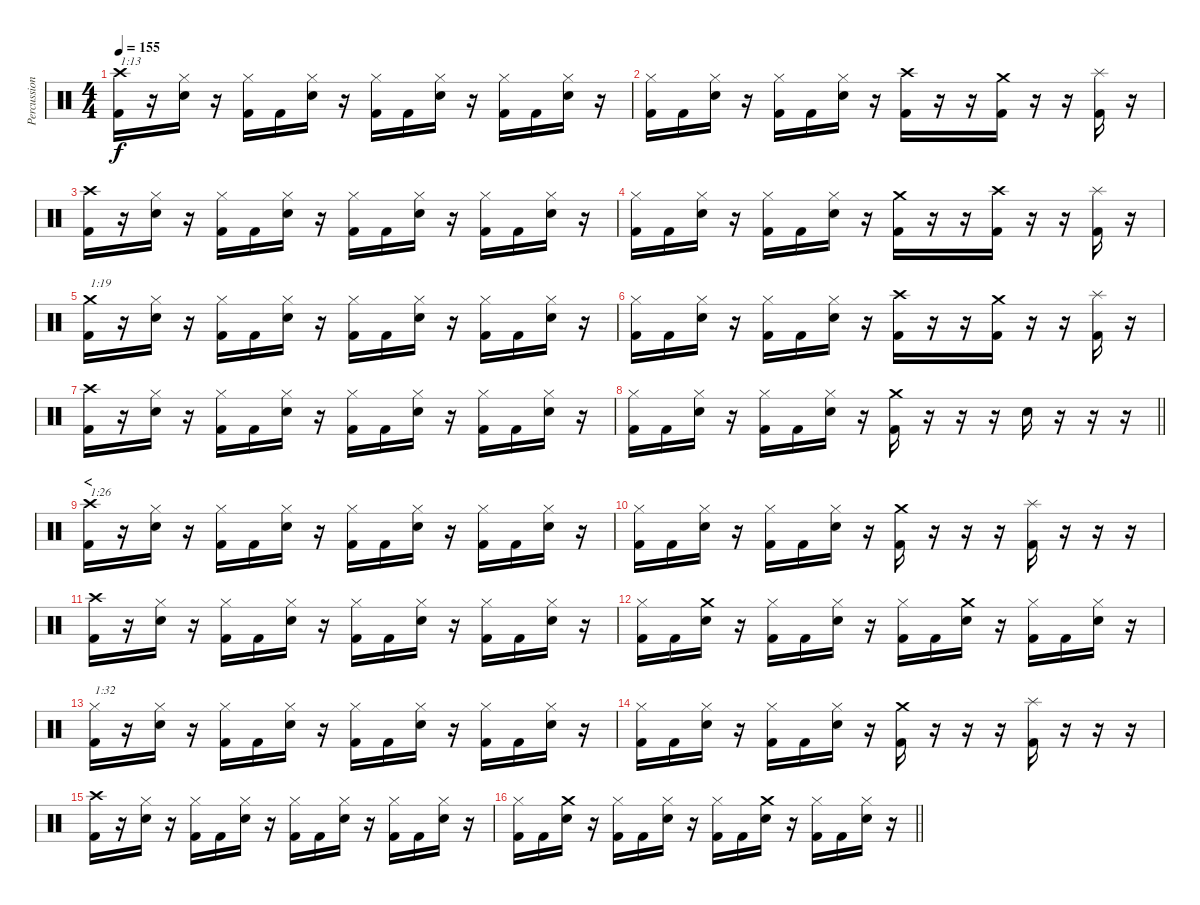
\track ("Percussion" "Percussion") {instrument percussion}
\staff {score}
\articulation defaults
\ts (4 4)
\tempo 155
\clef neutral
\ks c
("Crash high (hit)" "Kick (hit) 2").16{txt "1:13" dy f} r.16 ("Hi-Hat (closed)" "Electric Snare (hit)").16 r.16 ("Hi-Hat (closed)" "Kick (hit) 2").16 "Kick (hit) 2".16 ("Hi-Hat (closed)" "Electric Snare (hit)").16 r.16 ("Hi-Hat (closed)" "Kick (hit) 2").16 "Kick (hit) 2".16 ("Hi-Hat (closed)" "Electric Snare (hit)").16 r.16 ("Hi-Hat (closed)" "Kick (hit) 2").16 "Kick (hit) 2".16 ("Hi-Hat (closed)" "Electric Snare (hit)").16 r.16 |
("Hi-Hat (closed)" "Kick (hit) 2").16 "Kick (hit) 2".16 ("Hi-Hat (closed)" "Electric Snare (hit)").16 r.16 ("Hi-Hat (closed)" "Kick (hit) 2").16 "Kick (hit) 2".16 ("Hi-Hat (closed)" "Electric Snare (hit)").16 r.16 ("Crash high (hit)" "Kick (hit) 2").16 r.16 r.16 ("Crash medium (hit)" "Kick (hit) 2").16 r.16 r.16 ("Splash (hit)" "Kick (hit) 2").16 r.16 |
("Crash high (hit)" "Kick (hit) 2").16 r.16 ("Hi-Hat (closed)" "Electric Snare (hit)").16 r.16 ("Hi-Hat (closed)" "Kick (hit) 2").16 "Kick (hit) 2".16 ("Hi-Hat (closed)" "Electric Snare (hit)").16 r.16 ("Hi-Hat (closed)" "Kick (hit) 2").16 "Kick (hit) 2".16 ("Hi-Hat (closed)" "Electric Snare (hit)").16 r.16 ("Hi-Hat (closed)" "Kick (hit) 2").16 "Kick (hit) 2".16 ("Hi-Hat (closed)" "Electric Snare (hit)").16 r.16 |
("Hi-Hat (closed)" "Kick (hit) 2").16 "Kick (hit) 2".16 ("Hi-Hat (closed)" "Electric Snare (hit)").16 r.16 ("Hi-Hat (closed)" "Kick (hit) 2").16 "Kick (hit) 2".16 ("Hi-Hat (closed)" "Electric Snare (hit)").16 r.16 ("Crash medium (hit)" "Kick (hit) 2").16 r.16 r.16 ("Crash high (hit)" "Kick (hit) 2").16 r.16 r.16 ("Splash (hit)" "Kick (hit) 2").16 r.16 |
("Crash medium (hit)" "Kick (hit) 2").16{txt "1:19"} r.16 ("Hi-Hat (closed)" "Electric Snare (hit)").16 r.16 ("Hi-Hat (closed)" "Kick (hit) 2").16 "Kick (hit) 2".16 ("Hi-Hat (closed)" "Electric Snare (hit)").16 r.16 ("Hi-Hat (closed)" "Kick (hit) 2").16 "Kick (hit) 2".16 ("Hi-Hat (closed)" "Electric Snare (hit)").16 r.16 ("Hi-Hat (closed)" "Kick (hit) 2").16 "Kick (hit) 2".16 ("Hi-Hat (closed)" "Electric Snare (hit)").16 r.16 |
("Hi-Hat (closed)" "Kick (hit) 2").16 "Kick (hit) 2".16 ("Hi-Hat (closed)" "Electric Snare (hit)").16 r.16 ("Hi-Hat (closed)" "Kick (hit) 2").16 "Kick (hit) 2".16 ("Hi-Hat (closed)" "Electric Snare (hit)").16 r.16 ("Crash high (hit)" "Kick (hit) 2").16 r.16 r.16 ("Crash medium (hit)" "Kick (hit) 2").16 r.16 r.16 ("Splash (hit)" "Kick (hit) 2").16 r.16 |
("Crash high (hit)" "Kick (hit) 2").16 r.16 ("Hi-Hat (closed)" "Electric Snare (hit)").16 r.16 ("Hi-Hat (closed)" "Kick (hit) 2").16 "Kick (hit) 2".16 ("Hi-Hat (closed)" "Electric Snare (hit)").16 r.16 ("Hi-Hat (closed)" "Kick (hit) 2").16 "Kick (hit) 2".16 ("Hi-Hat (closed)" "Electric Snare (hit)").16 r.16 ("Hi-Hat (closed)" "Kick (hit) 2").16 "Kick (hit) 2".16 ("Hi-Hat (closed)" "Electric Snare (hit)").16 r.16 |
\barLineRight lightlight
("Hi-Hat (closed)" "Kick (hit) 2").16 "Kick (hit) 2".16 ("Hi-Hat (closed)" "Electric Snare (hit)").16 r.16 ("Hi-Hat (closed)" "Kick (hit) 2").16 "Kick (hit) 2".16 ("Hi-Hat (closed)" "Electric Snare (hit)").16 r.16 ("Crash medium (hit)" "Kick (hit) 2").16 r.16 r.16 r.16 "Electric Snare (hit)".16 r.16 r.16 r.16 |
\section ("" "<")
("Crash high (hit)" "Kick (hit) 2").16{txt "1:26"} r.16 ("Hi-Hat (closed)" "Electric Snare (hit)").16 r.16 ("Hi-Hat (closed)" "Kick (hit) 2").16 "Kick (hit) 2".16 ("Hi-Hat (closed)" "Electric Snare (hit)").16 r.16 ("Hi-Hat (closed)" "Kick (hit) 2").16 "Kick (hit) 2".16 ("Hi-Hat (closed)" "Electric Snare (hit)").16 r.16 ("Hi-Hat (closed)" "Kick (hit) 2").16 "Kick (hit) 2".16 ("Hi-Hat (closed)" "Electric Snare (hit)").16 r.16 |
("Hi-Hat (closed)" "Kick (hit) 2").16 "Kick (hit) 2".16 ("Hi-Hat (closed)" "Electric Snare (hit)").16 r.16 ("Hi-Hat (closed)" "Kick (hit) 2").16 "Kick (hit) 2".16 ("Hi-Hat (closed)" "Electric Snare (hit)").16 r.16 ("Crash medium (hit)" "Kick (hit) 2").16 r.16 r.16 r.16 ("Splash (hit)" "Kick (hit) 2").16 r.16 r.16 r.16 |
("Crash high (hit)" "Kick (hit) 2").16 r.16 ("Hi-Hat (closed)" "Electric Snare (hit)").16 r.16 ("Hi-Hat (closed)" "Kick (hit) 2").16 "Kick (hit) 2".16 ("Hi-Hat (closed)" "Electric Snare (hit)").16 r.16 ("Hi-Hat (closed)" "Kick (hit) 2").16 "Kick (hit) 2".16 ("Hi-Hat (closed)" "Electric Snare (hit)").16 r.16 ("Hi-Hat (closed)" "Kick (hit) 2").16 "Kick (hit) 2".16 ("Hi-Hat (closed)" "Electric Snare (hit)").16 r.16 |
("Hi-Hat (closed)" "Kick (hit) 2").16 "Kick (hit) 2".16 ("Crash medium (hit)" "Electric Snare (hit)").16 r.16 ("Hi-Hat (closed)" "Kick (hit) 2").16 "Kick (hit) 2".16 ("Hi-Hat (closed)" "Electric Snare (hit)").16 r.16 ("Hi-Hat (closed)" "Kick (hit) 2").16 "Kick (hit) 2".16 ("Crash medium (hit)" "Electric Snare (hit)").16 r.16 ("Hi-Hat (closed)" "Kick (hit) 2").16 "Kick (hit) 2".16 ("Hi-Hat (closed)" "Electric Snare (hit)").16 r.16 |
("Hi-Hat (closed)" "Kick (hit) 2").16{txt "1:32"} r.16 ("Hi-Hat (closed)" "Electric Snare (hit)").16 r.16 ("Hi-Hat (closed)" "Kick (hit) 2").16 "Kick (hit) 2".16 ("Hi-Hat (closed)" "Electric Snare (hit)").16 r.16 ("Hi-Hat (closed)" "Kick (hit) 2").16 "Kick (hit) 2".16 ("Hi-Hat (closed)" "Electric Snare (hit)").16 r.16 ("Hi-Hat (closed)" "Kick (hit) 2").16 "Kick (hit) 2".16 ("Hi-Hat (closed)" "Electric Snare (hit)").16 r.16 |
("Hi-Hat (closed)" "Kick (hit) 2").16 "Kick (hit) 2".16 ("Hi-Hat (closed)" "Electric Snare (hit)").16 r.16 ("Hi-Hat (closed)" "Kick (hit) 2").16 "Kick (hit) 2".16 ("Hi-Hat (closed)" "Electric Snare (hit)").16 r.16 ("Crash medium (hit)" "Kick (hit) 2").16 r.16 r.16 r.16 ("Splash (hit)" "Kick (hit) 2").16 r.16 r.16 r.16 |
("Crash high (hit)" "Kick (hit) 2").16 r.16 ("Hi-Hat (closed)" "Electric Snare (hit)").16 r.16 ("Hi-Hat (closed)" "Kick (hit) 2").16 "Kick (hit) 2".16 ("Hi-Hat (closed)" "Electric Snare (hit)").16 r.16 ("Hi-Hat (closed)" "Kick (hit) 2").16 "Kick (hit) 2".16 ("Hi-Hat (closed)" "Electric Snare (hit)").16 r.16 ("Hi-Hat (closed)" "Kick (hit) 2").16 "Kick (hit) 2".16 ("Hi-Hat (closed)" "Electric Snare (hit)").16 r.16 |
\barLineRight lightlight
("Hi-Hat (closed)" "Kick (hit) 2").16 "Kick (hit) 2".16 ("Crash medium (hit)" "Electric Snare (hit)").16 r.16 ("Hi-Hat (closed)" "Kick (hit) 2").16 "Kick (hit) 2".16 ("Hi-Hat (closed)" "Electric Snare (hit)").16 r.16 ("Hi-Hat (closed)" "Kick (hit) 2").16 "Kick (hit) 2".16 ("Crash medium (hit)" "Electric Snare (hit)").16 r.16 ("Hi-Hat (closed)" "Kick (hit) 2").16 "Kick (hit) 2".16 ("Hi-Hat (closed)" "Electric Snare (hit)").16 r.16
